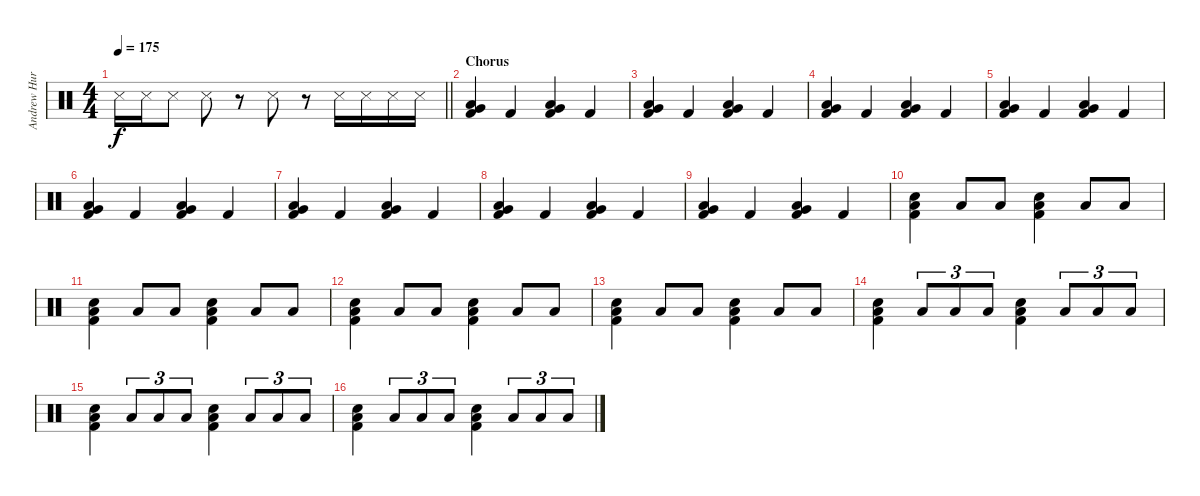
\track ("Andrew Hurley (Drums)" "Andrew Hur") {instrument percussion}
\staff {score}
\articulation defaults
\ts (4 4)
\tempo 175
\clef neutral
\barLineRight lightlight
\ks c "Snare (side stick) 3".16{dy f} "Snare (side stick) 3".16 "Snare (side stick) 3".8 "Snare (side stick) 3".8
r.8 "Snare (side stick) 3".8 r.8 "Snare (side stick) 3".16 "Snare (side stick) 3".16 "Snare (side stick) 3".16 "Snare (side stick) 3".16 |
\section ("" "Chorus")
("Very Low Tom (hit)" "Low Floor Tom (hit)" "Kick (hit) 2").4 "Kick (hit) 2".4 ("Very Low Tom (hit)" "Low Floor Tom (hit)" "Kick (hit) 2").4 "Kick (hit) 2".4 |
("Very Low Tom (hit)" "Low Floor Tom (hit)" "Kick (hit) 2").4 "Kick (hit) 2".4 ("Very Low Tom (hit)" "Low Floor Tom (hit)" "Kick (hit) 2").4 "Kick (hit) 2".4 |
("Very Low Tom (hit)" "Low Floor Tom (hit)" "Kick (hit) 2").4 "Kick (hit) 2".4 ("Very Low Tom (hit)" "Low Floor Tom (hit)" "Kick (hit) 2").4 "Kick (hit) 2".4 |
("Very Low Tom (hit)" "Low Floor Tom (hit)" "Kick (hit) 2").4 "Kick (hit) 2".4 ("Very Low Tom (hit)" "Low Floor Tom (hit)" "Kick (hit) 2").4 "Kick (hit) 2".4 |
("Very Low Tom (hit)" "Low Floor Tom (hit)" "Kick (hit) 2").4 "Kick (hit) 2".4 ("Very Low Tom (hit)" "Low Floor Tom (hit)" "Kick (hit) 2").4 "Kick (hit) 2".4 |
("Very Low Tom (hit)" "Low Floor Tom (hit)" "Kick (hit) 2").4 "Kick (hit) 2".4 ("Very Low Tom (hit)" "Low Floor Tom (hit)" "Kick (hit) 2").4 "Kick (hit) 2".4 |
("Very Low Tom (hit)" "Low Floor Tom (hit)" "Kick (hit) 2").4 "Kick (hit) 2".4 ("Very Low Tom (hit)" "Low Floor Tom (hit)" "Kick (hit) 2").4 "Kick (hit) 2".4 |
("Very Low Tom (hit)" "Low Floor Tom (hit)" "Kick (hit) 2").4 "Kick (hit) 2".4 ("Very Low Tom (hit)" "Low Floor Tom (hit)" "Kick (hit) 2").4 "Kick (hit) 2".4 |
("Snare (hit) 2" "Low Floor Tom (hit)" "Kick (hit) 2").4 "Low Floor Tom (hit)".8 "Low Floor Tom (hit)".8 ("Snare (hit) 2" "Low Floor Tom (hit)" "Kick (hit) 2").4 "Low Floor Tom (hit)".8 "Low Floor Tom (hit)".8 |
("Snare (hit) 2" "Low Floor Tom (hit)" "Kick (hit) 2").4 "Low Floor Tom (hit)".8 "Low Floor Tom (hit)".8 ("Snare (hit) 2" "Low Floor Tom (hit)" "Kick (hit) 2").4 "Low Floor Tom (hit)".8 "Low Floor Tom (hit)".8 |
("Snare (hit) 2" "Low Floor Tom (hit)" "Kick (hit) 2").4 "Low Floor Tom (hit)".8 "Low Floor Tom (hit)".8 ("Snare (hit) 2" "Low Floor Tom (hit)" "Kick (hit) 2").4 "Low Floor Tom (hit)".8 "Low Floor Tom (hit)".8 |
("Snare (hit) 2" "Low Floor Tom (hit)" "Kick (hit) 2").4 "Low Floor Tom (hit)".8 "Low Floor Tom (hit)".8 ("Snare (hit) 2" "Low Floor Tom (hit)" "Kick (hit) 2").4 "Low Floor Tom (hit)".8 "Low Floor Tom (hit)".8 |
("Snare (hit) 2" "Low Floor Tom (hit)" "Kick (hit) 2").4 "Low Floor Tom (hit)".8{tu (3 2)} "Low Floor Tom (hit)".8{tu (3 2)} "Low Floor Tom (hit)".8{tu (3 2)} ("Snare (hit) 2" "Low Floor Tom (hit)" "Kick (hit) 2").4 "Low Floor Tom (hit)".8{tu (3 2)} "Low Floor Tom (hit)".8{tu (3 2)} "Low Floor Tom (hit)".8{tu (3 2)} |
("Snare (hit) 2" "Low Floor Tom (hit)" "Kick (hit) 2").4 "Low Floor Tom (hit)".8{tu (3 2)} "Low Floor Tom (hit)".8{tu (3 2)} "Low Floor Tom (hit)".8{tu (3 2)} ("Snare (hit) 2" "Low Floor Tom (hit)" "Kick (hit) 2").4 "Low Floor Tom (hit)".8{tu (3 2)} "Low Floor Tom (hit)".8{tu (3 2)} "Low Floor Tom (hit)".8{tu (3 2)} |
("Snare (hit) 2" "Low Floor Tom (hit)" "Kick (hit) 2").4 "Low Floor Tom (hit)".8{tu (3 2)} "Low Floor Tom (hit)".8{tu (3 2)} "Low Floor Tom (hit)".8{tu (3 2)} ("Snare (hit) 2" "Low Floor Tom (hit)" "Kick (hit) 2").4 "Low Floor Tom (hit)".8{tu (3 2)} "Low Floor Tom (hit)".8{tu (3 2)} "Low Floor Tom (hit)".8{tu (3 2)}
